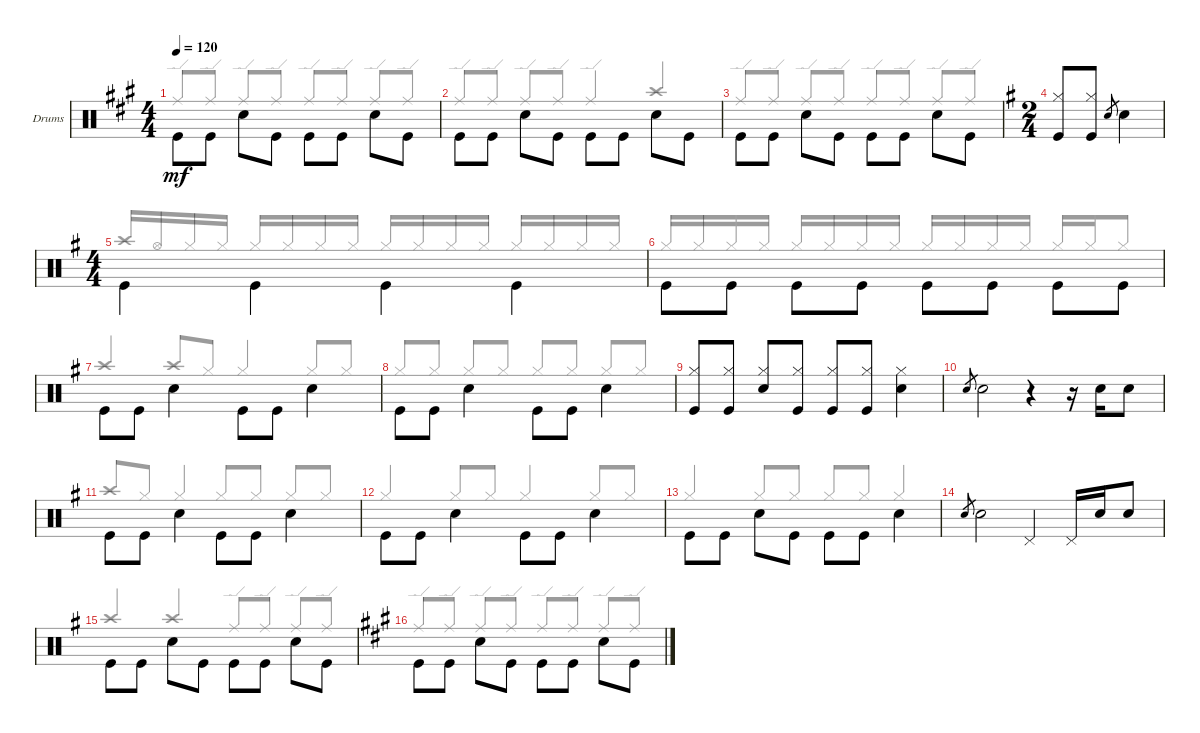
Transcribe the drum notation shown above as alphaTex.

\defaultSystemsLayout 4
\bracketExtendMode groupsimilarinstruments
\firstSystemTrackNameOrientation horizontal
\otherSystemsTrackNameOrientation horizontal
\track ("PETER CRISS" "Drums") {mute instrument percussion}
\staff {score}
\articulation defaults
\voice
\ts (4 4)
\tempo 120
\clef neutral
\ks a "Kick (hit)".8{dy mf beam invert} "Kick (hit)".8 "Snare (hit) 2".8{beam invert} "Kick (hit)".8 "Kick (hit)".8{beam invert} "Kick (hit)".8 "Snare (hit) 2".8{beam invert} "Kick (hit)".8
|
"Kick (hit)".8{beam invert} "Kick (hit)".8 "Snare (hit) 2".8{beam invert} "Kick (hit)".8 "Kick (hit)".8{beam invert} "Kick (hit)".8 "Snare (hit) 2".8{beam invert} "Kick (hit)".8 |
"Kick (hit)".8{beam invert} "Kick (hit)".8 "Snare (hit) 2".8{beam invert} "Kick (hit)".8 "Kick (hit)".8{beam invert} "Kick (hit)".8 "Snare (hit) 2".8{beam invert} "Kick (hit)".8 |
\ts (2 4)
\ks g
("Kick (hit)" "Hi-Hat (closed)").8{beam invert} ("Kick (hit)" "Hi-Hat (closed)").8 "Snare (hit) 2".8{gr} "Snare (hit) 2".4 |
\ts (4 4)
"Kick (hit)".4{beam invert} "Kick (hit)".4{beam invert} "Kick (hit)".4{beam invert} "Kick (hit)".4{beam invert} |
"Kick (hit)".8{beam invert} "Kick (hit)".8 "Kick (hit)".8{beam invert} "Kick (hit)".8 "Kick (hit)".8{beam invert} "Kick (hit)".8 "Kick (hit)".8{beam invert} "Kick (hit)".8 |
"Kick (hit)".8{beam invert} "Kick (hit)".8 "Snare (hit) 2".4{beam invert} "Kick (hit)".8{beam invert} "Kick (hit)".8 "Snare (hit) 2".4{beam invert} |
"Kick (hit)".8{beam invert} "Kick (hit)".8 "Snare (hit) 2".4{beam invert} "Kick (hit)".8{beam invert} "Kick (hit)".8 "Snare (hit) 2".4{beam invert} |
("Kick (hit)" "Hi-Hat (closed)").8{beam invert} ("Kick (hit)" "Hi-Hat (closed)").8 ("Snare (hit) 2" "Hi-Hat (closed)").8{beam invert} ("Kick (hit)" "Hi-Hat (closed)").8 ("Kick (hit)" "Hi-Hat (closed)").8{beam invert} ("Kick (hit)" "Hi-Hat (closed)").8 ("Snare (hit) 2" "Hi-Hat (closed)").4 |
"Snare (hit) 2".8{gr} "Snare (hit) 2".2 r.4 r.16 "Snare (hit) 2".16 "Snare (hit) 2".8 |
"Kick (hit)".8{beam invert} "Kick (hit)".8 "Snare (hit) 2".4{beam invert} "Kick (hit)".8{beam invert} "Kick (hit)".8 "Snare (hit) 2".4{beam invert} |
"Kick (hit)".8{beam invert} "Kick (hit)".8 "Snare (hit) 2".4{beam invert} "Kick (hit)".8{beam invert} "Kick (hit)".8 "Snare (hit) 2".4{beam invert} |
"Kick (hit)".8{beam invert} "Kick (hit)".8 "Snare (hit) 2".8{beam invert} "Kick (hit)".8 "Kick (hit)".8{beam invert} "Kick (hit)".8 "Snare (hit) 2".4{beam invert} |
"Snare (hit) 2".8{gr} "Snare (hit) 2".2 "Pedal Hi-Hat (hit)".4 "Pedal Hi-Hat (hit)".16 "Snare (hit) 2".16 "Snare (hit) 2".8 |
"Kick (hit)".8{beam invert} "Kick (hit)".8 "Snare (hit) 2".8{beam invert} "Kick (hit)".8 "Kick (hit)".8{beam invert} "Kick (hit)".8 "Snare (hit) 2".8{beam invert} "Kick (hit)".8 |
\ks a "Kick (hit)".8{beam invert} "Kick (hit)".8 "Snare (hit) 2".8{beam invert} "Kick (hit)".8 "Kick (hit)".8{beam invert} "Kick (hit)".8 "Snare (hit) 2".8{beam invert} "Kick (hit)".8
\voice
\clef neutral
\ottava regular
\simile none
\ks a "Ride (edge)".8{dy mf beam invert} "Ride (edge)".8 "Ride (edge)".8{beam invert} "Ride (edge)".8 "Ride (edge)".8{beam invert} "Ride (edge)".8 "Ride (edge)".8{beam invert} "Ride (edge)".8
|
"Ride (edge)".8{beam invert} "Ride (edge)".8 "Ride (edge)".8{beam invert} "Ride (edge)".8 "Ride (edge)".4{beam invert} "Crash high (hit)".4{beam invert} |
"Ride (edge)".8{beam invert} "Ride (edge)".8 "Ride (edge)".8{beam invert} "Ride (edge)".8 "Ride (edge)".8{beam invert} "Ride (edge)".8 "Ride (edge)".8{beam invert} "Ride (edge)".8 |
\ks g
|
"Crash high (hit)".16{beam invert} "Hi-Hat (open)".16 "Hi-Hat (closed)".16 "Hi-Hat (closed)".16 "Hi-Hat (closed)".16{beam invert} "Hi-Hat (closed)".16 "Hi-Hat (closed)".16 "Hi-Hat (closed)".16 "Hi-Hat (closed)".16{beam invert} "Hi-Hat (closed)".16 "Hi-Hat (closed)".16 "Hi-Hat (closed)".16 "Hi-Hat (closed)".16{beam invert} "Hi-Hat (closed)".16 "Hi-Hat (closed)".16 "Hi-Hat (closed)".16 |
"Hi-Hat (closed)".16{beam invert} "Hi-Hat (closed)".16 "Hi-Hat (closed)".16 "Hi-Hat (closed)".16 "Hi-Hat (closed)".16{beam invert} "Hi-Hat (closed)".16 "Hi-Hat (closed)".16 "Hi-Hat (closed)".16 "Hi-Hat (closed)".16{beam invert} "Hi-Hat (closed)".16 "Hi-Hat (closed)".16 "Hi-Hat (closed)".16 "Hi-Hat (closed)".16{beam invert} "Hi-Hat (closed)".16 "Hi-Hat (closed)".8 |
"Crash high (hit)".4{beam invert} "Crash high (hit)".8{beam invert} "Hi-Hat (closed)".8 "Hi-Hat (closed)".4{beam invert} "Hi-Hat (closed)".8{beam invert} "Hi-Hat (closed)".8 |
"Hi-Hat (closed)".8{beam invert} "Hi-Hat (closed)".8 "Hi-Hat (closed)".8{beam invert} "Hi-Hat (closed)".8 "Hi-Hat (closed)".8{beam invert} "Hi-Hat (closed)".8 "Hi-Hat (closed)".8{beam invert} "Hi-Hat (closed)".8 |
|
|
"Crash high (hit)".8{beam invert} "Hi-Hat (closed)".8 "Hi-Hat (closed)".4{beam invert} "Hi-Hat (closed)".8{beam invert} "Hi-Hat (closed)".8 "Hi-Hat (closed)".8{beam invert} "Hi-Hat (closed)".8 |
"Hi-Hat (closed)".4{beam invert} "Hi-Hat (closed)".8 "Hi-Hat (closed)".8{beam invert} "Hi-Hat (closed)".4{beam invert} "Hi-Hat (closed)".8 "Hi-Hat (closed)".8{beam invert} |
"Hi-Hat (closed)".4{beam invert} "Hi-Hat (closed)".8{beam invert} "Hi-Hat (closed)".8 "Hi-Hat (closed)".8{beam invert} "Hi-Hat (closed)".8 "Hi-Hat (closed)".4{beam invert} |
|
"Crash high (hit)".4{beam invert} "Crash high (hit)".4{beam invert} "Ride (edge)".8{beam invert} "Ride (edge)".8 "Ride (edge)".8{beam invert} "Ride (edge)".8 |
\ks a "Ride (edge)".8{beam invert} "Ride (edge)".8 "Ride (edge)".8{beam invert} "Ride (edge)".8 "Ride (edge)".8{beam invert} "Ride (edge)".8 "Ride (edge)".8{beam invert} "Ride (edge)".8
